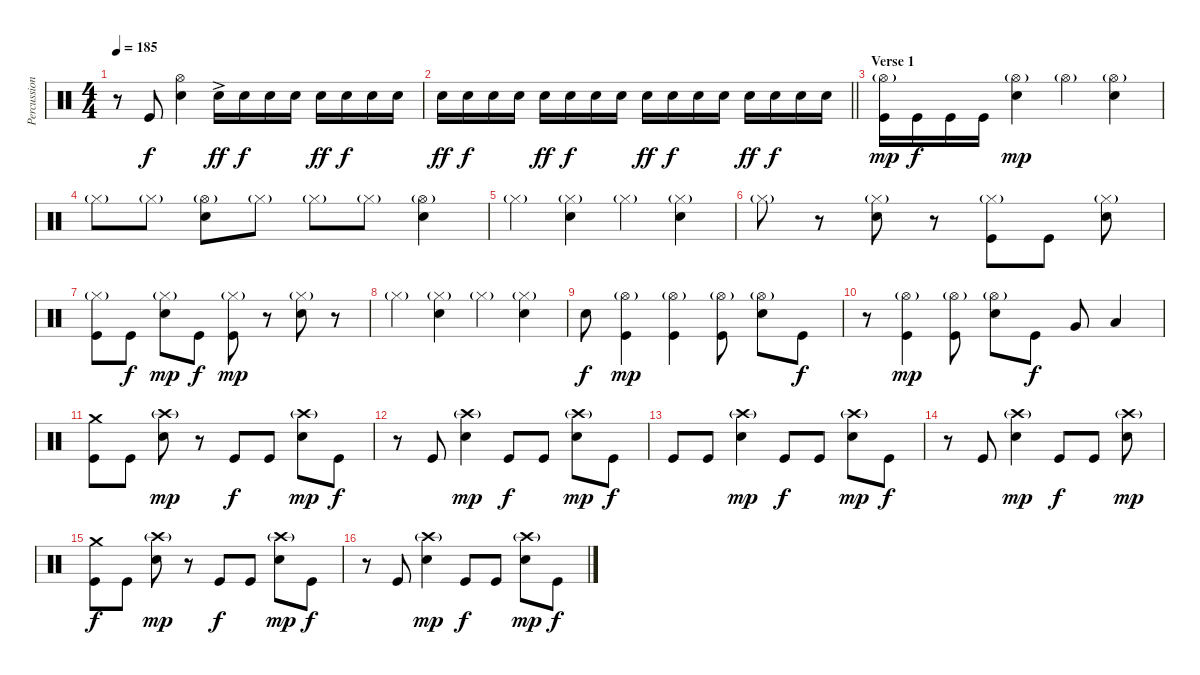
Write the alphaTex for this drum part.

\track ("Percussion" "Percussion") {instrument percussion}
\staff {score}
\articulation defaults
\ts (4 4)
\tempo 185
\clef neutral
\ks c
r.8{dy f} "Kick (hit)".8 ("Hi-Hat (open)" "Electric Snare (hit)").4 "Snare (hit) 2"{ac}.16{dy ff volume 10} "Snare (hit) 2".16{dy f volume 16} "Snare (hit) 2".16 "Snare (hit) 2".16 "Snare (hit) 2".16{dy ff} "Snare (hit) 2".16{dy f} "Snare (hit) 2".16 "Snare (hit) 2".16 |
\barLineRight lightlight "Snare (hit) 2".16{dy ff} "Snare (hit) 2".16{dy f} "Snare (hit) 2".16 "Snare (hit) 2".16 "Snare (hit) 2".16{dy ff} "Snare (hit) 2".16{dy f} "Snare (hit) 2".16 "Snare (hit) 2".16 "Snare (hit) 2".16{dy ff} "Snare (hit) 2".16{dy f} "Snare (hit) 2".16 "Snare (hit) 2".16 "Snare (hit) 2".16{dy ff} "Snare (hit) 2".16{dy f} "Snare (hit) 2".16 "Snare (hit) 2".16
|
\section ("" "Verse 1")
("Hi-Hat (open)"{g} "Kick (hit)").16{dy mp volume 13} "Kick (hit)".16{dy f} "Kick (hit)".16 "Kick (hit)".16 ("Hi-Hat (open)"{g} "Electric Snare (hit)").4{dy mp} "Hi-Hat (open)"{g}.4 ("Hi-Hat (open)"{g} "Electric Snare (hit)").4 |
"Hi-Hat (closed)"{g}.8 "Hi-Hat (closed)"{g}.8 ("Hi-Hat (open)"{g} "Electric Snare (hit)").8 "Hi-Hat (closed)"{g}.8 "Hi-Hat (closed)"{g}.8 "Hi-Hat (closed)"{g}.8 ("Hi-Hat (open)"{g} "Electric Snare (hit)").4 |
"Hi-Hat (closed)"{g}.4 ("Hi-Hat (closed)"{g} "Electric Snare (hit)").4 "Hi-Hat (closed)"{g}.4 ("Hi-Hat (closed)"{g} "Electric Snare (hit)").4 |
"Hi-Hat (closed)"{g}.8 r.8 ("Hi-Hat (closed)"{g} "Electric Snare (hit)").8 r.8 ("Hi-Hat (closed)"{g} "Kick (hit)").8 "Kick (hit)".8 ("Hi-Hat (closed)"{g} "Electric Snare (hit)").8 |
("Hi-Hat (closed)"{g} "Kick (hit)").8 "Kick (hit)".8{dy f} ("Hi-Hat (closed)"{g} "Electric Snare (hit)").8{dy mp} "Kick (hit)".8{dy f} ("Hi-Hat (closed)"{g} "Kick (hit)").8{dy mp} r.8 ("Hi-Hat (closed)"{g} "Electric Snare (hit)").8 r.8 |
"Hi-Hat (closed)"{g}.4 ("Hi-Hat (closed)"{g} "Electric Snare (hit)").4 "Hi-Hat (closed)"{g}.4 ("Hi-Hat (closed)"{g} "Electric Snare (hit)").4 |
"Electric Snare (hit)".8{dy f} ("Hi-Hat (open)"{g} "Kick (hit)").4{dy mp} ("Hi-Hat (open)"{g} "Kick (hit)").4 ("Hi-Hat (open)"{g} "Kick (hit)").8 ("Hi-Hat (open)"{g} "Electric Snare (hit)").8 "Kick (hit)".8{dy f} |
r.8 ("Hi-Hat (open)"{g} "Kick (hit)").4{dy mp} ("Hi-Hat (open)"{g} "Kick (hit)").8 ("Hi-Hat (open)"{g} "Electric Snare (hit)").8 "Kick (hit)".8{dy f} "Very Low Tom (hit)".8 "Low Floor Tom (hit)".4 |
("Crash medium (hit)" "Kick (hit)").8 "Kick (hit)".8 ("Crash high (hit)"{g} "Electric Snare (hit)").8{dy mp} r.8 "Kick (hit)".8{dy f} "Kick (hit)".8 ("Crash high (hit)"{g} "Electric Snare (hit)").8{dy mp} "Kick (hit)".8{dy f} |
r.8 "Kick (hit)".8 ("Crash high (hit)"{g} "Electric Snare (hit)").4{dy mp} "Kick (hit)".8{dy f} "Kick (hit)".8 ("Crash high (hit)"{g} "Electric Snare (hit)").8{dy mp} "Kick (hit)".8{dy f} |
"Kick (hit)".8 "Kick (hit)".8 ("Crash high (hit)"{g} "Electric Snare (hit)").4{dy mp} "Kick (hit)".8{dy f} "Kick (hit)".8 ("Crash high (hit)"{g} "Electric Snare (hit)").8{dy mp} "Kick (hit)".8{dy f} |
r.8 "Kick (hit)".8 ("Crash high (hit)"{g} "Electric Snare (hit)").4{dy mp} "Kick (hit)".8{dy f} "Kick (hit)".8 ("Crash high (hit)"{g} "Electric Snare (hit)").8{dy mp} |
("Crash medium (hit)" "Kick (hit)").8{dy f} "Kick (hit)".8 ("Crash high (hit)"{g} "Electric Snare (hit)").8{dy mp} r.8 "Kick (hit)".8{dy f} "Kick (hit)".8 ("Crash high (hit)"{g} "Electric Snare (hit)").8{dy mp} "Kick (hit)".8{dy f} |
r.8 "Kick (hit)".8 ("Crash high (hit)"{g} "Electric Snare (hit)").4{dy mp} "Kick (hit)".8{dy f} "Kick (hit)".8 ("Crash high (hit)"{g} "Electric Snare (hit)").8{dy mp} "Kick (hit)".8{dy f}
